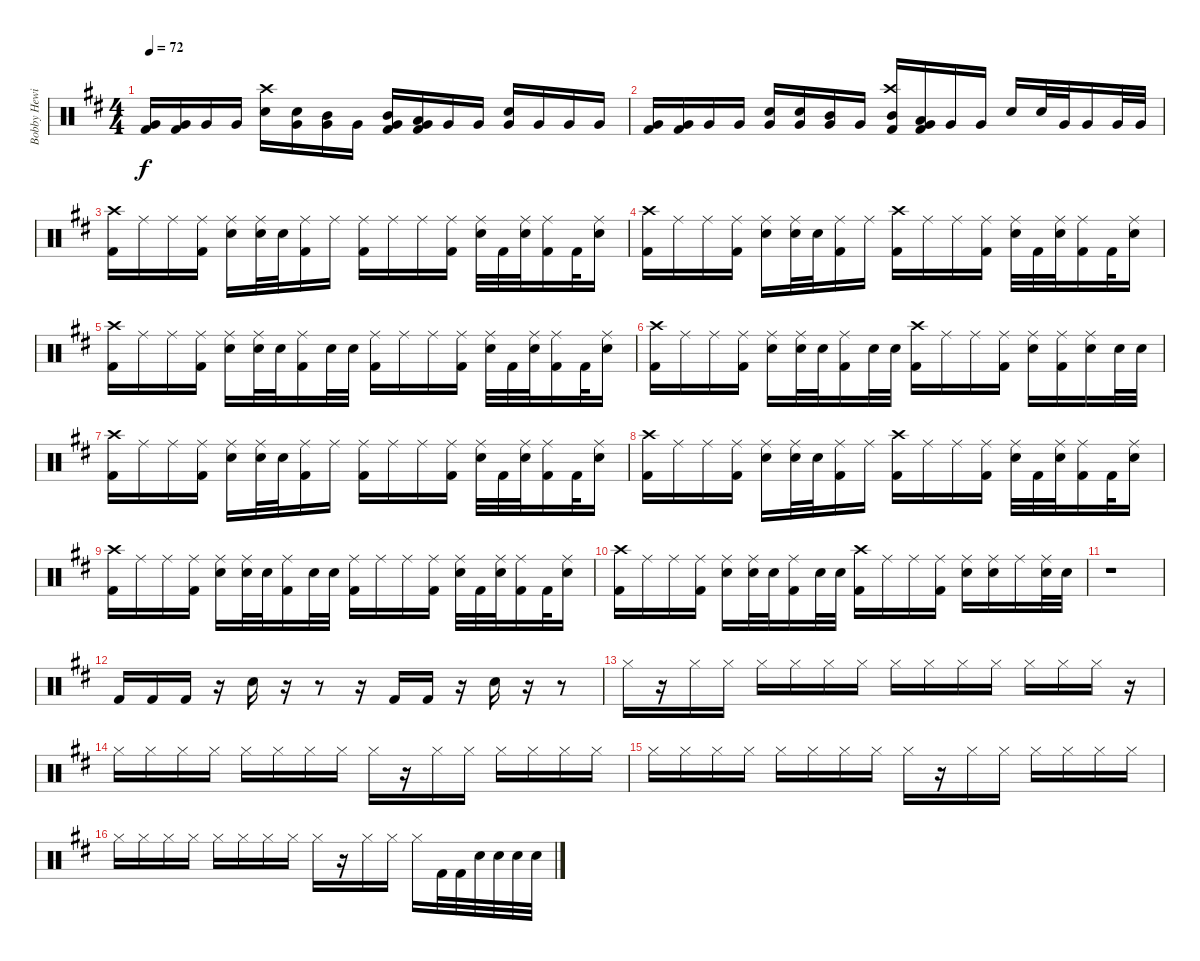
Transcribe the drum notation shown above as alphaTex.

\track ("Bobby Hewitt (Roland V-Drums)" "Bobby Hewi") {instrument percussion}
\staff {score}
\articulation defaults
\ts (4 4)
\tempo 72
\clef neutral
\ks d
("Very Low Tom (hit)" "Kick (hit) 2").16{dy f} ("Very Low Tom (hit)" "Kick (hit) 2").16 "Very Low Tom (hit)".16 "Very Low Tom (hit)".16 ("Crash high (hit)" "Electric Snare (hit)").16 ("Very Low Tom (hit)" "Electric Snare (hit)").16 ("Mid Tom (hit)" "Very Low Tom (hit)").16 "Very Low Tom (hit)".16 ("Mid Tom (hit)" "Very Low Tom (hit)" "Kick (hit) 2").16 ("Low Tom (hit)" "Very Low Tom (hit)" "Kick (hit) 2").16 "Very Low Tom (hit)".16 "Very Low Tom (hit)".16 ("Very Low Tom (hit)" "Electric Snare (hit)").16 "Very Low Tom (hit)".16 "Very Low Tom (hit)".16 "Very Low Tom (hit)".16 |
("Very Low Tom (hit)" "Kick (hit) 2").16 ("Very Low Tom (hit)" "Kick (hit) 2").16 "Very Low Tom (hit)".16 "Very Low Tom (hit)".16 ("Very Low Tom (hit)" "Electric Snare (hit)").16 ("Very Low Tom (hit)" "Electric Snare (hit)").16 ("Mid Tom (hit)" "Very Low Tom (hit)").16 "Very Low Tom (hit)".16 ("Crash high (hit)" "Mid Tom (hit)" "Kick (hit) 2").16 ("Low Tom (hit)" "Very Low Tom (hit)" "Kick (hit) 2").16 "Very Low Tom (hit)".16 "Very Low Tom (hit)".16 "Electric Snare (hit)".16 "Electric Snare (hit)".32 "Very Low Tom (hit)".32 "Very Low Tom (hit)".16 "Very Low Tom (hit)".32 "Very Low Tom (hit)".32 |
("Crash high (hit)" "Kick (hit) 2").16 "Ride (middle)".16 "Ride (middle)".16 ("Ride (middle)" "Kick (hit) 2").16 ("Ride (middle)" "Electric Snare (hit)").16 ("Ride (middle)" "Electric Snare (hit)").32 "Electric Snare (hit)".32 ("Ride (middle)" "Kick (hit) 2").16 "Ride (middle)".16 ("Ride (middle)" "Kick (hit) 2").16 "Ride (middle)".16 "Ride (middle)".16 ("Ride (middle)" "Kick (hit) 2").16 ("Ride (middle)" "Electric Snare (hit)").32 "Kick (hit) 2".32 ("Ride (middle)" "Electric Snare (hit)").32 ("Ride (middle)" "Kick (hit) 2").16 "Kick (hit) 2".32 ("Ride (middle)" "Electric Snare (hit)").16 |
("Crash high (hit)" "Kick (hit) 2").16 "Ride (middle)".16 "Ride (middle)".16 ("Ride (middle)" "Kick (hit) 2").16 ("Ride (middle)" "Electric Snare (hit)").16 ("Ride (middle)" "Electric Snare (hit)").32 "Electric Snare (hit)".32 ("Ride (middle)" "Kick (hit) 2").16 "Ride (middle)".16 ("Crash high (hit)" "Kick (hit) 2").16 "Ride (middle)".16 "Ride (middle)".16 ("Ride (middle)" "Kick (hit) 2").16 ("Ride (middle)" "Electric Snare (hit)").32 "Kick (hit) 2".32 ("Ride (middle)" "Electric Snare (hit)").32 ("Ride (middle)" "Kick (hit) 2").16 "Kick (hit) 2".32 ("Ride (middle)" "Electric Snare (hit)").16 |
("Crash high (hit)" "Kick (hit) 2").16 "Ride (middle)".16 "Ride (middle)".16 ("Ride (middle)" "Kick (hit) 2").16 ("Ride (middle)" "Electric Snare (hit)").16 ("Ride (middle)" "Electric Snare (hit)").32 "Electric Snare (hit)".32 ("Ride (middle)" "Kick (hit) 2").16 "Electric Snare (hit)".32 "Electric Snare (hit)".32 ("Ride (middle)" "Kick (hit) 2").16 "Ride (middle)".16 "Ride (middle)".16 ("Ride (middle)" "Kick (hit) 2").16 ("Ride (middle)" "Electric Snare (hit)").32 "Kick (hit) 2".32 ("Ride (middle)" "Electric Snare (hit)").32 ("Ride (middle)" "Kick (hit) 2").16 "Kick (hit) 2".32 ("Ride (middle)" "Electric Snare (hit)").16 |
("Crash high (hit)" "Kick (hit) 2").16 "Ride (middle)".16 "Ride (middle)".16 ("Ride (middle)" "Kick (hit) 2").16 ("Ride (middle)" "Electric Snare (hit)").16 ("Ride (middle)" "Electric Snare (hit)").32 "Electric Snare (hit)".32 ("Ride (middle)" "Kick (hit) 2").16 "Electric Snare (hit)".32 "Electric Snare (hit)".32 ("Crash high (hit)" "Kick (hit) 2").16 "Ride (middle)".16 "Ride (middle)".16 ("Ride (middle)" "Kick (hit) 2").16 ("Ride (middle)" "Electric Snare (hit)").16 ("Ride (middle)" "Kick (hit) 2").16 ("Ride (middle)" "Electric Snare (hit)").16 "Electric Snare (hit)".32 "Electric Snare (hit)".32 |
("Crash high (hit)" "Kick (hit) 2").16 "Ride (middle)".16 "Ride (middle)".16 ("Ride (middle)" "Kick (hit) 2").16 ("Ride (middle)" "Electric Snare (hit)").16 ("Ride (middle)" "Electric Snare (hit)").32 "Electric Snare (hit)".32 ("Ride (middle)" "Kick (hit) 2").16 "Ride (middle)".16 ("Ride (middle)" "Kick (hit) 2").16 "Ride (middle)".16 "Ride (middle)".16 ("Ride (middle)" "Kick (hit) 2").16 ("Ride (middle)" "Electric Snare (hit)").32 "Kick (hit) 2".32 ("Ride (middle)" "Electric Snare (hit)").32 ("Ride (middle)" "Kick (hit) 2").16 "Kick (hit) 2".32 ("Ride (middle)" "Electric Snare (hit)").16 |
("Crash high (hit)" "Kick (hit) 2").16 "Ride (middle)".16 "Ride (middle)".16 ("Ride (middle)" "Kick (hit) 2").16 ("Ride (middle)" "Electric Snare (hit)").16 ("Ride (middle)" "Electric Snare (hit)").32 "Electric Snare (hit)".32 ("Ride (middle)" "Kick (hit) 2").16 "Ride (middle)".16 ("Crash high (hit)" "Kick (hit) 2").16 "Ride (middle)".16 "Ride (middle)".16 ("Ride (middle)" "Kick (hit) 2").16 ("Ride (middle)" "Electric Snare (hit)").32 "Kick (hit) 2".32 ("Ride (middle)" "Electric Snare (hit)").32 ("Ride (middle)" "Kick (hit) 2").16 "Kick (hit) 2".32 ("Ride (middle)" "Electric Snare (hit)").16 |
("Crash high (hit)" "Kick (hit) 2").16 "Ride (middle)".16 "Ride (middle)".16 ("Ride (middle)" "Kick (hit) 2").16 ("Ride (middle)" "Electric Snare (hit)").16 ("Ride (middle)" "Electric Snare (hit)").32 "Electric Snare (hit)".32 ("Ride (middle)" "Kick (hit) 2").16 "Electric Snare (hit)".32 "Electric Snare (hit)".32 ("Ride (middle)" "Kick (hit) 2").16 "Ride (middle)".16 "Ride (middle)".16 ("Ride (middle)" "Kick (hit) 2").16 ("Ride (middle)" "Electric Snare (hit)").32 "Kick (hit) 2".32 ("Ride (middle)" "Electric Snare (hit)").32 ("Ride (middle)" "Kick (hit) 2").16 "Kick (hit) 2".32 ("Ride (middle)" "Electric Snare (hit)").16 |
("Crash high (hit)" "Kick (hit) 2").16 "Ride (middle)".16 "Ride (middle)".16 ("Ride (middle)" "Kick (hit) 2").16 ("Ride (middle)" "Electric Snare (hit)").16 ("Ride (middle)" "Electric Snare (hit)").32 "Electric Snare (hit)".32 ("Ride (middle)" "Kick (hit) 2").16 "Electric Snare (hit)".32 "Electric Snare (hit)".32 ("Crash high (hit)" "Kick (hit) 2").16 "Ride (middle)".16 "Ride (middle)".16 ("Ride (middle)" "Kick (hit) 2").16 ("Ride (middle)" "Electric Snare (hit)").16 ("Ride (middle)" "Electric Snare (hit)").16 "Ride (middle)".16 ("Ride (middle)" "Electric Snare (hit)").32 "Electric Snare (hit)".32 |
r.1 |
"Kick (hit) 2".16 "Kick (hit) 2".16 "Kick (hit) 2".16 r.16 "Electric Snare (hit)".16 r.16 r.8 r.16 "Kick (hit) 2".16 "Kick (hit) 2".16 r.16 "Electric Snare (hit)".16 r.16 r.8 |
"Hi-Hat (closed)".16 r.16 "Hi-Hat (closed)".16 "Hi-Hat (closed)".16 "Hi-Hat (closed)".16 "Hi-Hat (closed)".16 "Hi-Hat (closed)".16 "Hi-Hat (closed)".16 "Hi-Hat (closed)".16 "Hi-Hat (closed)".16 "Hi-Hat (closed)".16 "Hi-Hat (closed)".16 "Hi-Hat (closed)".16 "Hi-Hat (closed)".16 "Hi-Hat (closed)".16 r.16 |
"Hi-Hat (closed)".16 "Hi-Hat (closed)".16 "Hi-Hat (closed)".16 "Hi-Hat (closed)".16 "Hi-Hat (closed)".16 "Hi-Hat (closed)".16 "Hi-Hat (closed)".16 "Hi-Hat (closed)".16 "Hi-Hat (closed)".16 r.16 "Hi-Hat (closed)".16 "Hi-Hat (closed)".16 "Hi-Hat (closed)".16 "Hi-Hat (closed)".16 "Hi-Hat (closed)".16 "Hi-Hat (closed)".16 |
"Hi-Hat (closed)".16 "Hi-Hat (closed)".16 "Hi-Hat (closed)".16 "Hi-Hat (closed)".16 "Hi-Hat (closed)".16 "Hi-Hat (closed)".16 "Hi-Hat (closed)".16 "Hi-Hat (closed)".16 "Hi-Hat (closed)".16 r.16 "Hi-Hat (closed)".16 "Hi-Hat (closed)".16 "Hi-Hat (closed)".16 "Hi-Hat (closed)".16 "Hi-Hat (closed)".16 "Hi-Hat (closed)".16 |
"Hi-Hat (closed)".16 "Hi-Hat (closed)".16 "Hi-Hat (closed)".16 "Hi-Hat (closed)".16 "Hi-Hat (closed)".16 "Hi-Hat (closed)".16 "Hi-Hat (closed)".16 "Hi-Hat (closed)".16 "Hi-Hat (closed)".16 r.16 "Hi-Hat (closed)".16 "Hi-Hat (closed)".16 "Hi-Hat (closed)".16 "Kick (hit) 2".32 "Kick (hit) 2".32 "Electric Snare (hit)".32 "Electric Snare (hit)".32 "Electric Snare (hit)".32 "Electric Snare (hit)".32
